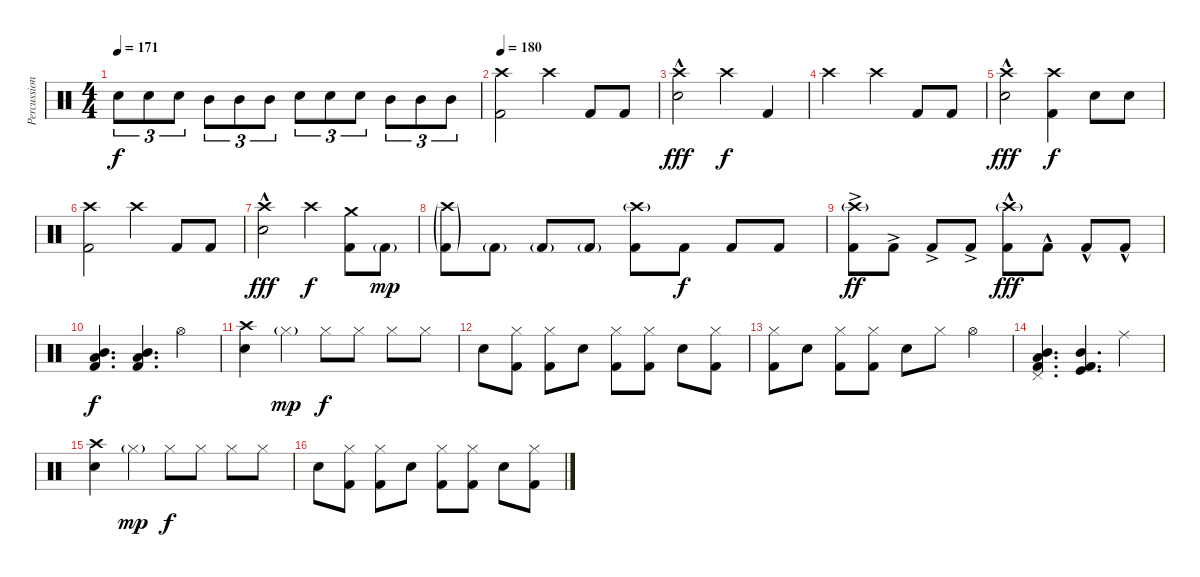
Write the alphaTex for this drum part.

\track ("Percussion" "Percussion") {instrument percussion}
\staff {score}
\articulation defaults
\ts (4 4)
\tempo 171
\clef neutral
\ks c "Electric Snare (hit)".8{tu (3 2) dy f} "Electric Snare (hit)".8{tu (3 2)} "Electric Snare (hit)".8{tu (3 2)} "Mid Tom (hit)".8{tu (3 2)} "Mid Tom (hit)".8{tu (3 2)} "Mid Tom (hit)".8{tu (3 2)} "Electric Snare (hit)".8{tu (3 2)} "Electric Snare (hit)".8{tu (3 2)} "Electric Snare (hit)".8{tu (3 2)} "Mid Tom (hit)".8{tu (3 2)} "Mid Tom (hit)".8{tu (3 2)} "Mid Tom (hit)".8{tu (3 2)}
|
\tempo 180
("Crash high (hit)" "Kick (hit) 2").2 "Crash high (hit)".4 "Kick (hit) 2".8 "Kick (hit) 2".8 |
("Crash high (hit)"{hac} "Electric Snare (hit)").2{dy fff} "Crash high (hit)".4{dy f} "Kick (hit) 2".4 |
"Crash high (hit)".2 "Crash high (hit)".4 "Kick (hit) 2".8 "Kick (hit) 2".8 |
("Crash high (hit)"{hac} "Electric Snare (hit)").2{dy fff} ("Crash high (hit)" "Kick (hit) 2").4{dy f} "Electric Snare (hit)".8 "Electric Snare (hit)".8 |
("Crash high (hit)" "Kick (hit) 2").2 "Crash high (hit)".4 "Kick (hit) 2".8 "Kick (hit) 2".8 |
("Crash high (hit)"{hac} "Electric Snare (hit)").2{dy fff} "Crash high (hit)".4{dy f} ("Crash medium (hit)" "Kick (hit) 2").8 "Kick (hit) 2"{g}.8{dy mp} |
("Crash high (hit)"{g} "Kick (hit) 2"{g}).8 "Kick (hit) 2"{g}.8 "Kick (hit) 2"{g}.8 "Kick (hit) 2"{g}.8 ("Crash high (hit)"{g} "Kick (hit) 2").8 "Kick (hit) 2".8{dy f} "Kick (hit) 2".8 "Kick (hit) 2".8 |
("Crash high (hit)"{g} "Kick (hit) 2"{ac}).8{dy ff} "Kick (hit) 2"{ac}.8 "Kick (hit) 2"{ac}.8 "Kick (hit) 2"{ac}.8 ("Crash high (hit)"{g} "Kick (hit) 2"{hac}).8{dy fff} "Kick (hit) 2"{hac}.8 "Kick (hit) 2"{hac}.8 "Kick (hit) 2"{hac}.8 |
("Mid Tom (hit)" "Low Tom (hit)" "Kick (hit) 2").4{d dy f} ("Mid Tom (hit)" "Low Tom (hit)" "Kick (hit) 2").4{d} "Hi-Hat (open)".4 |
("Crash high (hit)" "Electric Snare (hit)").4 "Hi-Hat (closed)"{g}.4{dy mp} "Hi-Hat (closed)".8{dy f} "Hi-Hat (closed)".8 "Hi-Hat (closed)".8 "Hi-Hat (closed)".8 |
"Electric Snare (hit)".8 ("Hi-Hat (closed)" "Kick (hit) 2").8 ("Hi-Hat (closed)" "Kick (hit) 2").8 "Electric Snare (hit)".8 ("Hi-Hat (closed)" "Kick (hit) 2").8 ("Hi-Hat (closed)" "Kick (hit) 2").8 "Electric Snare (hit)".8 ("Hi-Hat (closed)" "Kick (hit) 2").8 |
("Hi-Hat (closed)" "Kick (hit) 2").8 "Electric Snare (hit)".8 ("Hi-Hat (closed)" "Kick (hit) 2").8 ("Hi-Hat (closed)" "Kick (hit) 2").8 "Electric Snare (hit)".8 "Hi-Hat (closed)".8 "Hi-Hat (open)".4 |
("Mid Tom (hit)" "Low Tom (hit)" "Pedal Hi-Hat (hit)" "Kick (hit) 2").4{d} ("Mid Tom (hit)" "Kick (hit)" "Kick (hit) 2").4{d} "Ride (middle)".4 |
("Crash high (hit)" "Electric Snare (hit)").4 "Hi-Hat (closed)"{g}.4{dy mp} "Hi-Hat (closed)".8{dy f} "Hi-Hat (closed)".8 "Hi-Hat (closed)".8 "Hi-Hat (closed)".8 |
"Electric Snare (hit)".8 ("Hi-Hat (closed)" "Kick (hit) 2").8 ("Hi-Hat (closed)" "Kick (hit) 2").8 "Electric Snare (hit)".8 ("Hi-Hat (closed)" "Kick (hit) 2").8 ("Hi-Hat (closed)" "Kick (hit) 2").8 "Electric Snare (hit)".8 ("Hi-Hat (closed)" "Kick (hit) 2").8
